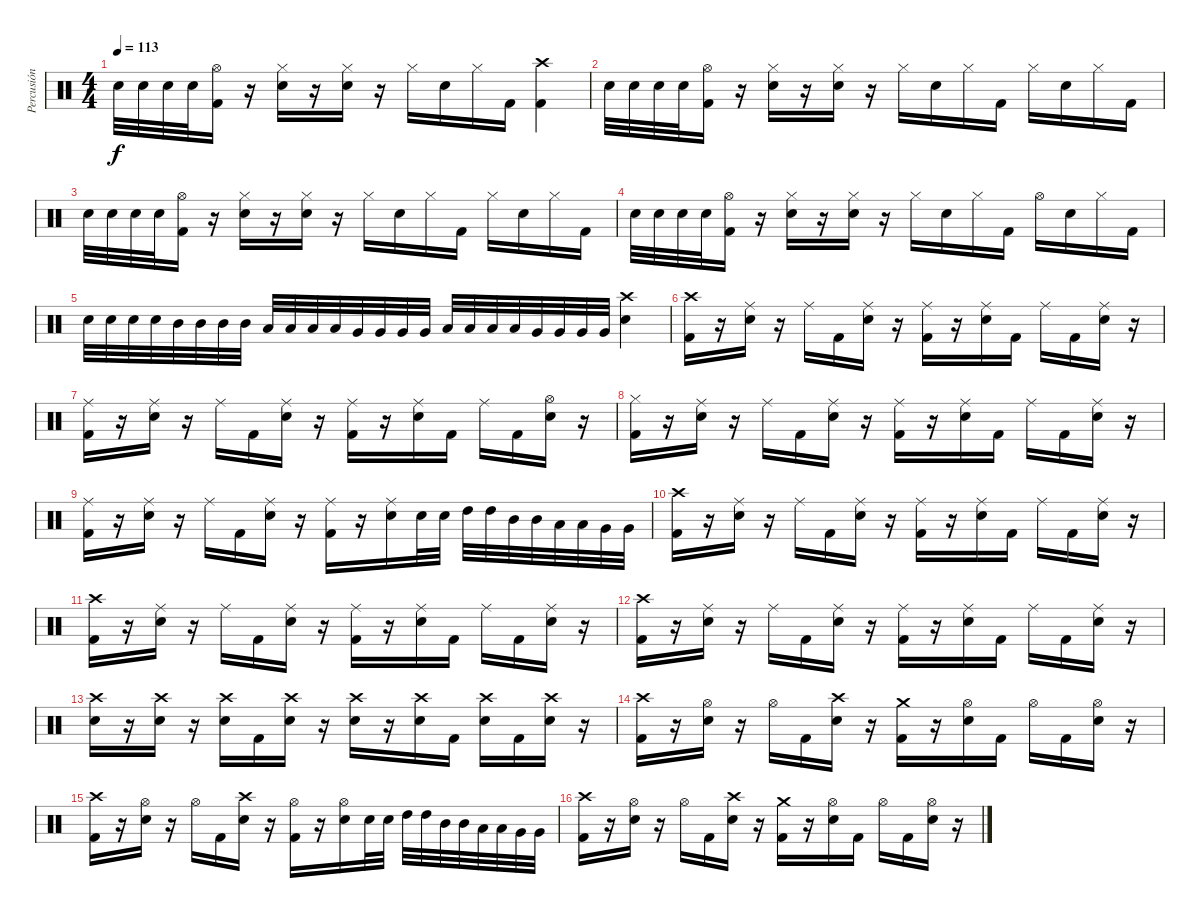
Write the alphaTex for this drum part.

\track ("Percusión" "Percusión") {instrument percussion}
\staff {score}
\articulation defaults
\ts (4 4)
\tempo 113
\clef neutral
\ks c "Electric Snare (hit)".32{dy f} "Electric Snare (hit)".32 "Electric Snare (hit)".32 "Electric Snare (hit)".32
("Hi-Hat (open)" "Kick (hit) 2").16 r.16 ("Hi-Hat (closed)" "Electric Snare (hit)").16 r.16 ("Hi-Hat (closed)" "Electric Snare (hit)").16 r.16 "Hi-Hat (closed)".16 "Electric Snare (hit)".16 "Hi-Hat (closed)".16 "Kick (hit) 2".16 ("Crash high (hit)" "Kick (hit) 2").4 |
"Electric Snare (hit)".32 "Electric Snare (hit)".32 "Electric Snare (hit)".32 "Electric Snare (hit)".32 ("Hi-Hat (open)" "Kick (hit) 2").16 r.16 ("Hi-Hat (closed)" "Electric Snare (hit)").16 r.16 ("Hi-Hat (closed)" "Electric Snare (hit)").16 r.16 "Hi-Hat (closed)".16 "Electric Snare (hit)".16 "Hi-Hat (closed)".16 "Kick (hit) 2".16 "Hi-Hat (closed)".16 "Electric Snare (hit)".16 "Hi-Hat (closed)".16 "Kick (hit) 2".16 |
"Electric Snare (hit)".32 "Electric Snare (hit)".32 "Electric Snare (hit)".32 "Electric Snare (hit)".32 ("Hi-Hat (open)" "Kick (hit) 2").16 r.16 ("Hi-Hat (closed)" "Electric Snare (hit)").16 r.16 ("Hi-Hat (closed)" "Electric Snare (hit)").16 r.16 "Hi-Hat (closed)".16 "Electric Snare (hit)".16 "Hi-Hat (closed)".16 "Kick (hit) 2".16 "Hi-Hat (closed)".16 "Electric Snare (hit)".16 "Hi-Hat (closed)".16 "Kick (hit) 2".16 |
"Electric Snare (hit)".32 "Electric Snare (hit)".32 "Electric Snare (hit)".32 "Electric Snare (hit)".32 ("Hi-Hat (open)" "Kick (hit) 2").16 r.16 ("Hi-Hat (closed)" "Electric Snare (hit)").16 r.16 ("Hi-Hat (closed)" "Electric Snare (hit)").16 r.16 "Hi-Hat (closed)".16 "Electric Snare (hit)".16 "Hi-Hat (closed)".16 "Kick (hit) 2".16 "Hi-Hat (open)".16 "Electric Snare (hit)".16 "Hi-Hat (closed)".16 "Kick (hit) 2".16 |
"Electric Snare (hit)".32 "Electric Snare (hit)".32 "Electric Snare (hit)".32 "Electric Snare (hit)".32 "Mid Tom (hit)".32 "Mid Tom (hit)".32 "Mid Tom (hit)".32 "Mid Tom (hit)".32 "Low Tom (hit)".32 "Low Tom (hit)".32 "Low Tom (hit)".32 "Low Tom (hit)".32 "Very Low Tom (hit)".32 "Very Low Tom (hit)".32 "Very Low Tom (hit)".32 "Very Low Tom (hit)".32 "Low Floor Tom (hit)".32 "Low Floor Tom (hit)".32 "Low Floor Tom (hit)".32 "Low Floor Tom (hit)".32 "Very Low Tom (hit)".32 "Very Low Tom (hit)".32 "Very Low Tom (hit)".32 "Very Low Tom (hit)".32 ("Crash high (hit)" "Electric Snare (hit)").4 |
("Crash high (hit)" "Kick (hit) 2").16 r.16 ("Ride (middle)" "Electric Snare (hit)").16 r.16 "Ride (middle)".16 "Kick (hit) 2".16 ("Ride (middle)" "Electric Snare (hit)").16 r.16 ("Ride (middle)" "Kick (hit) 2").16 r.16 ("Ride (middle)" "Electric Snare (hit)").16 "Kick (hit) 2".16 "Ride (middle)".16 "Kick (hit) 2".16 ("Ride (middle)" "Electric Snare (hit)").16 r.16 |
("Ride (middle)" "Kick (hit) 2").16 r.16 ("Ride (middle)" "Electric Snare (hit)").16 r.16 "Ride (middle)".16 "Kick (hit) 2".16 ("Ride (middle)" "Electric Snare (hit)").16 r.16 ("Ride (middle)" "Kick (hit) 2").16 r.16 ("Ride (middle)" "Electric Snare (hit)").16 "Kick (hit) 2".16 "Ride (middle)".16 "Kick (hit) 2".16 ("Hi-Hat (open)" "Electric Snare (hit)").16 r.16 |
("Hi-Hat (closed)" "Kick (hit) 2").16 r.16 ("Ride (middle)" "Electric Snare (hit)").16 r.16 "Ride (middle)".16 "Kick (hit) 2".16 ("Ride (middle)" "Electric Snare (hit)").16 r.16 ("Ride (middle)" "Kick (hit) 2").16 r.16 ("Ride (middle)" "Electric Snare (hit)").16 "Kick (hit) 2".16 "Ride (middle)".16 "Kick (hit) 2".16 ("Ride (middle)" "Electric Snare (hit)").16 r.16 |
("Ride (middle)" "Kick (hit) 2").16 r.16 ("Ride (middle)" "Electric Snare (hit)").16 r.16 "Ride (middle)".16 "Kick (hit) 2".16 ("Ride (middle)" "Electric Snare (hit)").16 r.16 ("Ride (middle)" "Kick (hit) 2").16 r.16 ("Ride (middle)" "Electric Snare (hit)").16 "Electric Snare (hit)".32 "Electric Snare (hit)".32 "High Tom (hit)".32 "High Tom (hit)".32 "Mid Tom (hit)".32 "Mid Tom (hit)".32 "Low Tom (hit)".32 "Low Tom (hit)".32 "Very Low Tom (hit)".32 "Very Low Tom (hit)".32 |
("Crash high (hit)" "Kick (hit) 2").16 r.16 ("Ride (middle)" "Electric Snare (hit)").16 r.16 "Ride (middle)".16 "Kick (hit) 2".16 ("Ride (middle)" "Electric Snare (hit)").16 r.16 ("Ride (middle)" "Kick (hit) 2").16 r.16 ("Ride (middle)" "Electric Snare (hit)").16 "Kick (hit) 2".16 "Ride (middle)".16 "Kick (hit) 2".16 ("Ride (middle)" "Electric Snare (hit)").16 r.16 |
("Crash high (hit)" "Kick (hit) 2").16 r.16 ("Ride (middle)" "Electric Snare (hit)").16 r.16 "Ride (middle)".16 "Kick (hit) 2".16 ("Ride (middle)" "Electric Snare (hit)").16 r.16 ("Ride (middle)" "Kick (hit) 2").16 r.16 ("Ride (middle)" "Electric Snare (hit)").16 "Kick (hit) 2".16 "Ride (middle)".16 "Kick (hit) 2".16 ("Ride (middle)" "Electric Snare (hit)").16 r.16 |
("Crash high (hit)" "Kick (hit) 2").16 r.16 ("Ride (middle)" "Electric Snare (hit)").16 r.16 "Ride (middle)".16 "Kick (hit) 2".16 ("Ride (middle)" "Electric Snare (hit)").16 r.16 ("Ride (middle)" "Kick (hit) 2").16 r.16 ("Ride (middle)" "Electric Snare (hit)").16 "Kick (hit) 2".16 "Ride (middle)".16 "Kick (hit) 2".16 ("Ride (middle)" "Electric Snare (hit)").16 r.16 |
("Crash high (hit)" "Electric Snare (hit)").16 r.16 ("Crash high (hit)" "Electric Snare (hit)").16 r.16 ("Crash high (hit)" "Electric Snare (hit)").16 "Kick (hit) 2".16 ("Crash high (hit)" "Electric Snare (hit)").16 r.16 ("Crash high (hit)" "Electric Snare (hit)").16 r.16 ("Crash high (hit)" "Electric Snare (hit)").16 "Kick (hit) 2".16 ("Crash high (hit)" "Electric Snare (hit)").16 "Kick (hit) 2".16 ("Crash high (hit)" "Electric Snare (hit)").16 r.16 |
("Crash high (hit)" "Kick (hit) 2").16 r.16 ("Hi-Hat (open)" "Electric Snare (hit)").16 r.16 "Hi-Hat (open)".16 "Kick (hit) 2".16 ("Crash high (hit)" "Electric Snare (hit)").16 r.16 ("Crash medium (hit)" "Kick (hit) 2").16 r.16 ("Hi-Hat (open)" "Electric Snare (hit)").16 "Kick (hit) 2".16 "Hi-Hat (open)".16 "Kick (hit) 2".16 ("Hi-Hat (open)" "Electric Snare (hit)").16 r.16 |
("Crash high (hit)" "Kick (hit) 2").16 r.16 ("Hi-Hat (open)" "Electric Snare (hit)").16 r.16 "Hi-Hat (open)".16 "Kick (hit) 2".16 ("Crash high (hit)" "Electric Snare (hit)").16 r.16 ("Hi-Hat (open)" "Kick (hit) 2").16 r.16 ("Hi-Hat (open)" "Electric Snare (hit)").16 "Electric Snare (hit)".32 "Electric Snare (hit)".32 "High Tom (hit)".32 "High Tom (hit)".32 "Mid Tom (hit)".32 "Mid Tom (hit)".32 "Low Tom (hit)".32 "Low Tom (hit)".32 "Very Low Tom (hit)".32 "Very Low Tom (hit)".32 |
("Crash high (hit)" "Kick (hit) 2").16 r.16 ("Hi-Hat (open)" "Electric Snare (hit)").16 r.16 "Hi-Hat (open)".16 "Kick (hit) 2".16 ("Crash high (hit)" "Electric Snare (hit)").16 r.16 ("Crash medium (hit)" "Kick (hit) 2").16 r.16 ("Hi-Hat (open)" "Electric Snare (hit)").16 "Kick (hit) 2".16 "Hi-Hat (open)".16 "Kick (hit) 2".16 ("Hi-Hat (open)" "Electric Snare (hit)").16 r.16
